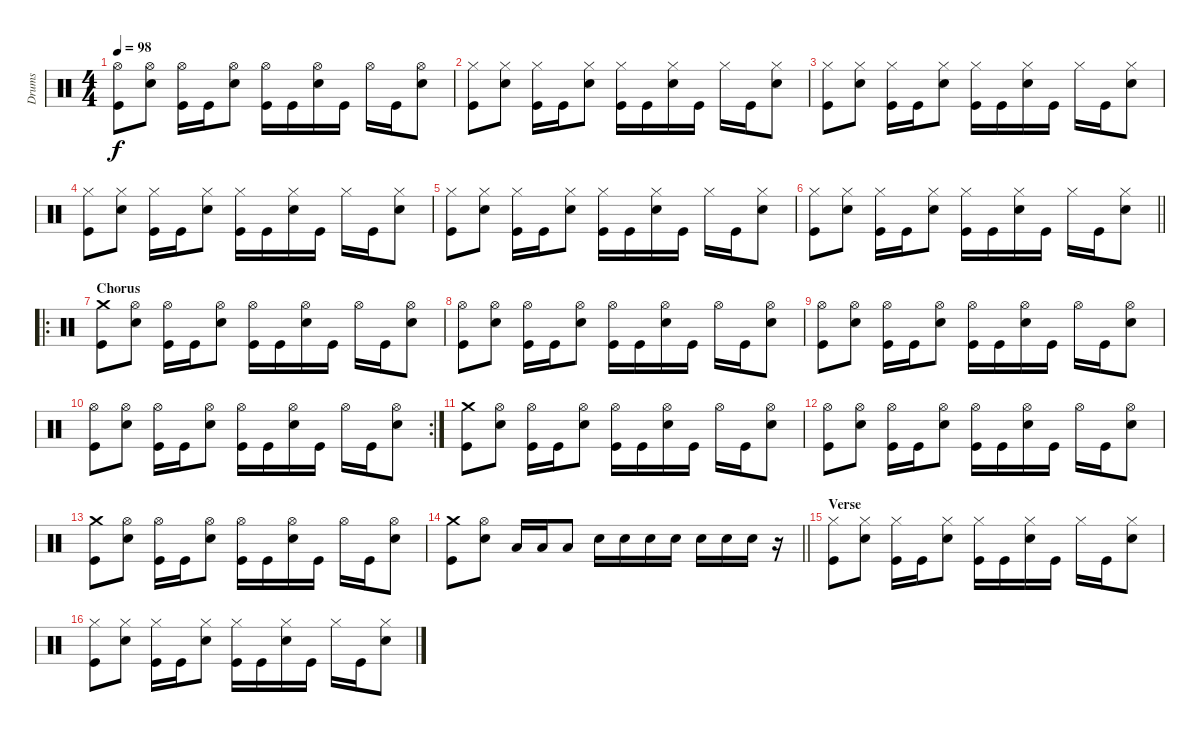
\track ("Drums" "Drums") {instrument percussion}
\staff {score}
\articulation defaults
\ts (4 4)
\tempo 98
\clef neutral
\ks c
("Hi-Hat (open)" "Kick (hit)").8{dy f} ("Hi-Hat (open)" "Electric Snare (hit)").8 ("Hi-Hat (open)" "Kick (hit)").16 "Kick (hit)".16 ("Hi-Hat (open)" "Electric Snare (hit)").8 ("Hi-Hat (open)" "Kick (hit)").16 "Kick (hit)".16 ("Hi-Hat (open)" "Electric Snare (hit)").16 "Kick (hit)".16 "Hi-Hat (open)".16 "Kick (hit)".16 ("Hi-Hat (open)" "Electric Snare (hit)").8 |
("Hi-Hat (closed)" "Kick (hit)").8 ("Hi-Hat (closed)" "Electric Snare (hit)").8 ("Hi-Hat (closed)" "Kick (hit)").16 "Kick (hit)".16 ("Hi-Hat (closed)" "Electric Snare (hit)").8 ("Hi-Hat (closed)" "Kick (hit)").16 "Kick (hit)".16 ("Hi-Hat (closed)" "Electric Snare (hit)").16 "Kick (hit)".16 "Hi-Hat (closed)".16 "Kick (hit)".16 ("Hi-Hat (closed)" "Electric Snare (hit)").8 |
("Hi-Hat (closed)" "Kick (hit)").8 ("Hi-Hat (closed)" "Electric Snare (hit)").8 ("Hi-Hat (closed)" "Kick (hit)").16 "Kick (hit)".16 ("Hi-Hat (closed)" "Electric Snare (hit)").8 ("Hi-Hat (closed)" "Kick (hit)").16 "Kick (hit)".16 ("Hi-Hat (closed)" "Electric Snare (hit)").16 "Kick (hit)".16 "Hi-Hat (closed)".16 "Kick (hit)".16 ("Hi-Hat (closed)" "Electric Snare (hit)").8 |
("Hi-Hat (closed)" "Kick (hit)").8 ("Hi-Hat (closed)" "Electric Snare (hit)").8 ("Hi-Hat (closed)" "Kick (hit)").16 "Kick (hit)".16 ("Hi-Hat (closed)" "Electric Snare (hit)").8 ("Hi-Hat (closed)" "Kick (hit)").16 "Kick (hit)".16 ("Hi-Hat (closed)" "Electric Snare (hit)").16 "Kick (hit)".16 "Hi-Hat (closed)".16 "Kick (hit)".16 ("Hi-Hat (closed)" "Electric Snare (hit)").8 |
("Hi-Hat (closed)" "Kick (hit)").8 ("Hi-Hat (closed)" "Electric Snare (hit)").8 ("Hi-Hat (closed)" "Kick (hit)").16 "Kick (hit)".16 ("Hi-Hat (closed)" "Electric Snare (hit)").8 ("Hi-Hat (closed)" "Kick (hit)").16 "Kick (hit)".16 ("Hi-Hat (closed)" "Electric Snare (hit)").16 "Kick (hit)".16 "Hi-Hat (closed)".16 "Kick (hit)".16 ("Hi-Hat (closed)" "Electric Snare (hit)").8 |
\barLineRight lightlight
("Hi-Hat (closed)" "Kick (hit)").8 ("Hi-Hat (closed)" "Electric Snare (hit)").8 ("Hi-Hat (closed)" "Kick (hit)").16 "Kick (hit)".16 ("Hi-Hat (closed)" "Electric Snare (hit)").8 ("Hi-Hat (closed)" "Kick (hit)").16 "Kick (hit)".16 ("Hi-Hat (closed)" "Electric Snare (hit)").16 "Kick (hit)".16 "Hi-Hat (closed)".16 "Kick (hit)".16 ("Hi-Hat (closed)" "Electric Snare (hit)").8 |
\ro
\section ("" "Chorus")
("Crash medium (hit)" "Kick (hit)").8 ("Hi-Hat (open)" "Electric Snare (hit)").8 ("Hi-Hat (open)" "Kick (hit)").16 "Kick (hit)".16 ("Hi-Hat (open)" "Electric Snare (hit)").8 ("Hi-Hat (open)" "Kick (hit)").16 "Kick (hit)".16 ("Hi-Hat (open)" "Electric Snare (hit)").16 "Kick (hit)".16 "Hi-Hat (open)".16 "Kick (hit)".16 ("Hi-Hat (open)" "Electric Snare (hit)").8 |
("Hi-Hat (open)" "Kick (hit)").8 ("Hi-Hat (open)" "Electric Snare (hit)").8 ("Hi-Hat (open)" "Kick (hit)").16 "Kick (hit)".16 ("Hi-Hat (open)" "Electric Snare (hit)").8 ("Hi-Hat (open)" "Kick (hit)").16 "Kick (hit)".16 ("Hi-Hat (open)" "Electric Snare (hit)").16 "Kick (hit)".16 "Hi-Hat (open)".16 "Kick (hit)".16 ("Hi-Hat (open)" "Electric Snare (hit)").8 |
("Hi-Hat (open)" "Kick (hit)").8 ("Hi-Hat (open)" "Electric Snare (hit)").8 ("Hi-Hat (open)" "Kick (hit)").16 "Kick (hit)".16 ("Hi-Hat (open)" "Electric Snare (hit)").8 ("Hi-Hat (open)" "Kick (hit)").16 "Kick (hit)".16 ("Hi-Hat (open)" "Electric Snare (hit)").16 "Kick (hit)".16 "Hi-Hat (open)".16 "Kick (hit)".16 ("Hi-Hat (open)" "Electric Snare (hit)").8 |
\rc 2
("Hi-Hat (open)" "Kick (hit)").8 ("Hi-Hat (open)" "Electric Snare (hit)").8 ("Hi-Hat (open)" "Kick (hit)").16 "Kick (hit)".16 ("Hi-Hat (open)" "Electric Snare (hit)").8 ("Hi-Hat (open)" "Kick (hit)").16 "Kick (hit)".16 ("Hi-Hat (open)" "Electric Snare (hit)").16 "Kick (hit)".16 "Hi-Hat (open)".16 "Kick (hit)".16 ("Hi-Hat (open)" "Electric Snare (hit)").8 |
("Crash medium (hit)" "Kick (hit)").8 ("Hi-Hat (open)" "Electric Snare (hit)").8 ("Hi-Hat (open)" "Kick (hit)").16 "Kick (hit)".16 ("Hi-Hat (open)" "Electric Snare (hit)").8 ("Hi-Hat (open)" "Kick (hit)").16 "Kick (hit)".16 ("Hi-Hat (open)" "Electric Snare (hit)").16 "Kick (hit)".16 "Hi-Hat (open)".16 "Kick (hit)".16 ("Hi-Hat (open)" "Electric Snare (hit)").8 |
("Hi-Hat (open)" "Kick (hit)").8 ("Hi-Hat (open)" "Electric Snare (hit)").8 ("Hi-Hat (open)" "Kick (hit)").16 "Kick (hit)".16 ("Hi-Hat (open)" "Electric Snare (hit)").8 ("Hi-Hat (open)" "Kick (hit)").16 "Kick (hit)".16 ("Hi-Hat (open)" "Electric Snare (hit)").16 "Kick (hit)".16 "Hi-Hat (open)".16 "Kick (hit)".16 ("Hi-Hat (open)" "Electric Snare (hit)").8 |
("Crash medium (hit)" "Kick (hit)").8 ("Hi-Hat (open)" "Electric Snare (hit)").8 ("Hi-Hat (open)" "Kick (hit)").16 "Kick (hit)".16 ("Hi-Hat (open)" "Electric Snare (hit)").8 ("Hi-Hat (open)" "Kick (hit)").16 "Kick (hit)".16 ("Hi-Hat (open)" "Electric Snare (hit)").16 "Kick (hit)".16 "Hi-Hat (open)".16 "Kick (hit)".16 ("Hi-Hat (open)" "Electric Snare (hit)").8 |
\barLineRight lightlight
("Crash medium (hit)" "Kick (hit)").8 ("Hi-Hat (open)" "Electric Snare (hit)").8 "Low Tom (hit)".16 "Low Tom (hit)".16 "Low Tom (hit)".8 "Electric Snare (hit)".16 "Electric Snare (hit)".16 "Electric Snare (hit)".16 "Electric Snare (hit)".16 "Electric Snare (hit)".16 "Electric Snare (hit)".16 "Electric Snare (hit)".16 r.16 |
\section ("" "Verse")
("Hi-Hat (closed)" "Kick (hit)").8 ("Hi-Hat (closed)" "Electric Snare (hit)").8 ("Hi-Hat (closed)" "Kick (hit)").16 "Kick (hit)".16 ("Hi-Hat (closed)" "Electric Snare (hit)").8 ("Hi-Hat (closed)" "Kick (hit)").16 "Kick (hit)".16 ("Hi-Hat (closed)" "Electric Snare (hit)").16 "Kick (hit)".16 "Hi-Hat (closed)".16 "Kick (hit)".16 ("Hi-Hat (closed)" "Electric Snare (hit)").8 |
("Hi-Hat (closed)" "Kick (hit)").8 ("Hi-Hat (closed)" "Electric Snare (hit)").8 ("Hi-Hat (closed)" "Kick (hit)").16 "Kick (hit)".16 ("Hi-Hat (closed)" "Electric Snare (hit)").8 ("Hi-Hat (closed)" "Kick (hit)").16 "Kick (hit)".16 ("Hi-Hat (closed)" "Electric Snare (hit)").16 "Kick (hit)".16 "Hi-Hat (closed)".16 "Kick (hit)".16 ("Hi-Hat (closed)" "Electric Snare (hit)").8
